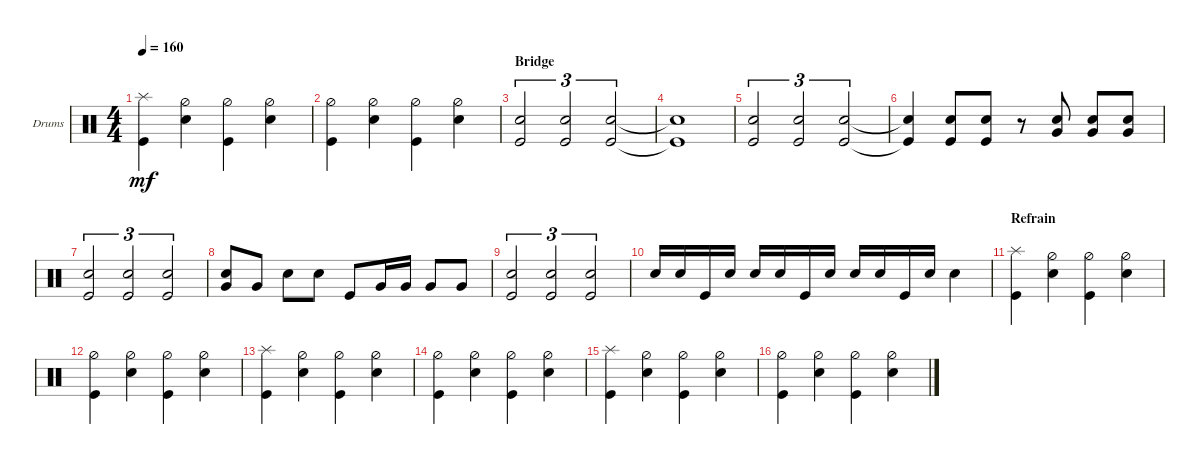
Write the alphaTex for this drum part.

\defaultSystemsLayout 4
\bracketExtendMode groupsimilarinstruments
\firstSystemTrackNameOrientation horizontal
\otherSystemsTrackNameOrientation horizontal
\track ("Drumkit" "Drums") {instrument percussion}
\staff {score}
\articulation defaults
\ts (4 4)
\tempo 160
\clef neutral
\ks c
("Splash (hit)" "Kick (hit)").4{dy mf} ("Hi-Hat (half)" "Snare (hit) 2").4 ("Hi-Hat (half)" "Kick (hit)").4 ("Hi-Hat (half)" "Snare (hit) 2").4 |
("Hi-Hat (half)" "Kick (hit)").4 ("Hi-Hat (half)" "Snare (hit) 2").4 ("Hi-Hat (half)" "Kick (hit)").4 ("Hi-Hat (half)" "Snare (hit) 2").4 |
\section ("" "Bridge")
("Snare (hit) 2" "Kick (hit)").2{tu (3 2)} ("Kick (hit)" "Snare (hit) 2").2{tu (3 2)} ("Snare (hit) 2" "Kick (hit)").2{tu (3 2)} |
("Snare (hit) 2"{t} "Kick (hit)"{t}).1 |
("Snare (hit) 2" "Kick (hit)").2{tu (3 2)} ("Kick (hit)" "Snare (hit) 2").2{tu (3 2)} ("Snare (hit) 2" "Kick (hit)").2{tu (3 2)} |
("Snare (hit) 2"{t} "Kick (hit)"{t}).4 ("Kick (hit)" "Snare (hit) 2").8 ("Snare (hit) 2" "Kick (hit)").8 r.8 ("Snare (hit) 2" "Very Low Tom (hit)").8 ("Very Low Tom (hit)" "Snare (hit) 2").8 ("Very Low Tom (hit)" "Snare (hit) 2").8 |
("Snare (hit) 2" "Kick (hit)").2{tu (3 2)} ("Kick (hit)" "Snare (hit) 2").2{tu (3 2)} ("Snare (hit) 2" "Kick (hit)").2{tu (3 2)} |
("Very Low Tom (hit)" "Snare (hit) 2").8 "Very Low Tom (hit)".8 "Snare (hit) 2".8 "Snare (hit) 2".8 "Kick (hit)".8 "Very Low Tom (hit)".16 "Very Low Tom (hit)".16 "Very Low Tom (hit)".8 "Very Low Tom (hit)".8 |
("Snare (hit) 2" "Kick (hit)").2{tu (3 2)} ("Kick (hit)" "Snare (hit) 2").2{tu (3 2)} ("Snare (hit) 2" "Kick (hit)").2{tu (3 2)} |
"Snare (hit) 2".16 "Snare (hit) 2".16 "Kick (hit)".16 "Snare (hit) 2".16 "Snare (hit) 2".16 "Snare (hit) 2".16 "Kick (hit)".16 "Snare (hit) 2".16 "Snare (hit) 2".16 "Snare (hit) 2".16 "Kick (hit)".16 "Snare (hit) 2".16 "Snare (hit) 2".4 |
\section ("" "Refrain")
("Kick (hit)" "Splash (hit)").4 ("Hi-Hat (half)" "Snare (hit) 2").4 ("Hi-Hat (half)" "Kick (hit)").4 ("Hi-Hat (half)" "Snare (hit) 2").4 |
("Hi-Hat (half)" "Kick (hit)").4 ("Hi-Hat (half)" "Snare (hit) 2").4 ("Hi-Hat (half)" "Kick (hit)").4 ("Hi-Hat (half)" "Snare (hit) 2").4 |
("Kick (hit)" "Splash (hit)").4 ("Hi-Hat (half)" "Snare (hit) 2").4 ("Hi-Hat (half)" "Kick (hit)").4 ("Hi-Hat (half)" "Snare (hit) 2").4 |
("Hi-Hat (half)" "Kick (hit)").4 ("Hi-Hat (half)" "Snare (hit) 2").4 ("Hi-Hat (half)" "Kick (hit)").4 ("Hi-Hat (half)" "Snare (hit) 2").4 |
("Kick (hit)" "Splash (hit)").4 ("Hi-Hat (half)" "Snare (hit) 2").4 ("Hi-Hat (half)" "Kick (hit)").4 ("Hi-Hat (half)" "Snare (hit) 2").4 |
("Hi-Hat (half)" "Kick (hit)").4 ("Hi-Hat (half)" "Snare (hit) 2").4 ("Hi-Hat (half)" "Kick (hit)").4 ("Hi-Hat (half)" "Snare (hit) 2").4
